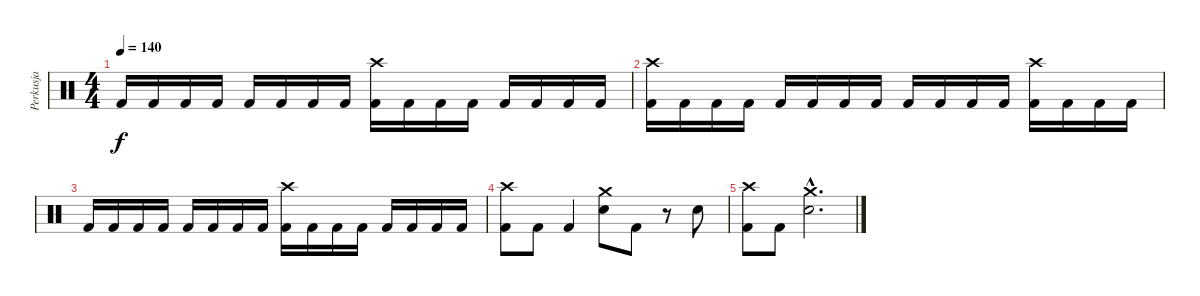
\track ("Perkusja" "Perkusja") {instrument percussion}
\staff {score}
\articulation defaults
\ts (4 4)
\tempo 140
\clef neutral
\ks c "Kick (hit) 2".16{dy f} "Kick (hit) 2".16 "Kick (hit) 2".16 "Kick (hit) 2".16 "Kick (hit) 2".16 "Kick (hit) 2".16 "Kick (hit) 2".16 "Kick (hit) 2".16
("Crash high (hit)" "Kick (hit) 2").16 "Kick (hit) 2".16 "Kick (hit) 2".16 "Kick (hit) 2".16 "Kick (hit) 2".16 "Kick (hit) 2".16 "Kick (hit) 2".16 "Kick (hit) 2".16 |
("Crash high (hit)" "Kick (hit) 2").16 "Kick (hit) 2".16 "Kick (hit) 2".16 "Kick (hit) 2".16 "Kick (hit) 2".16 "Kick (hit) 2".16 "Kick (hit) 2".16 "Kick (hit) 2".16 "Kick (hit) 2".16 "Kick (hit) 2".16 "Kick (hit) 2".16 "Kick (hit) 2".16 ("Crash high (hit)" "Kick (hit) 2").16 "Kick (hit) 2".16 "Kick (hit) 2".16 "Kick (hit) 2".16 |
"Kick (hit) 2".16 "Kick (hit) 2".16 "Kick (hit) 2".16 "Kick (hit) 2".16 "Kick (hit) 2".16 "Kick (hit) 2".16 "Kick (hit) 2".16 "Kick (hit) 2".16 ("Crash high (hit)" "Kick (hit) 2").16 "Kick (hit) 2".16 "Kick (hit) 2".16 "Kick (hit) 2".16 "Kick (hit) 2".16 "Kick (hit) 2".16 "Kick (hit) 2".16 "Kick (hit) 2".16 |
("Crash high (hit)" "Kick (hit) 2").8 "Kick (hit) 2".8 "Kick (hit) 2".4 ("Crash medium (hit)" "Electric Snare (hit)").8 "Kick (hit) 2".8 r.8 "Electric Snare (hit)".8 |
("Crash high (hit)" "Kick (hit) 2").8 "Kick (hit) 2".8 ("Crash medium (hit)"{hac} "Electric Snare (hit)"{hac}).2{d}
